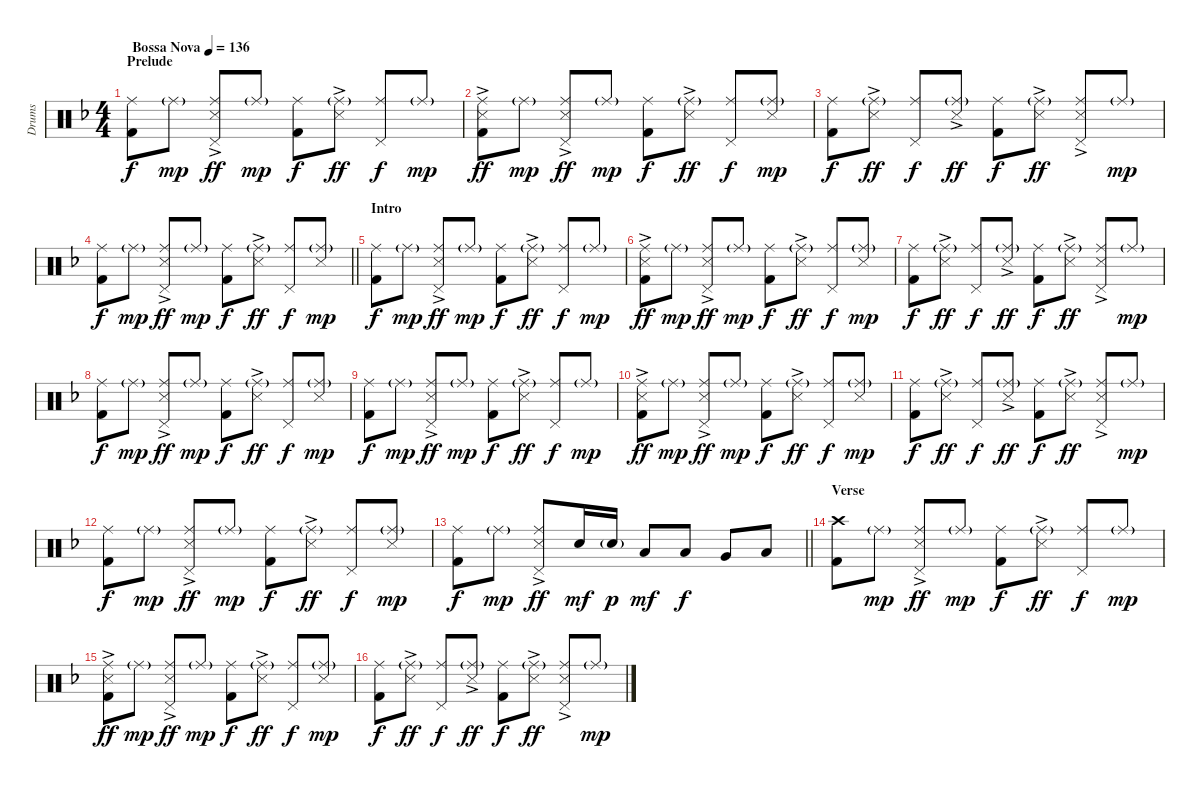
\track ("Drums" "Drums") {instrument percussion}
\staff {score}
\articulation defaults
\ts (4 4)
\section ("" "Prelude")
\tempo (136 "Bossa Nova")
\clef neutral
\ks f
("Ride (middle)" "Kick (hit) 2").8{dy f} "Ride (middle)"{g}.8{dy mp} ("Ride (middle)" "Snare (side stick) 3"{ac} "Pedal Hi-Hat (hit)").8{dy ff} "Ride (middle)"{g}.8{dy mp} ("Ride (middle)" "Kick (hit) 2").8{dy f} ("Ride (middle)"{g} "Snare (side stick) 3"{ac}).8{dy ff} ("Ride (middle)" "Pedal Hi-Hat (hit)").8{dy f} "Ride (middle)"{g}.8{dy mp} |
("Ride (middle)" "Snare (side stick) 3"{ac} "Kick (hit) 2").8{dy ff} "Ride (middle)"{g}.8{dy mp} ("Ride (middle)" "Snare (side stick) 3"{ac} "Pedal Hi-Hat (hit)").8{dy ff} "Ride (middle)"{g}.8{dy mp} ("Ride (middle)" "Kick (hit) 2").8{dy f} ("Ride (middle)"{g} "Snare (side stick) 3"{ac}).8{dy ff} ("Ride (middle)" "Pedal Hi-Hat (hit)").8{dy f} ("Ride (middle)"{g} "Snare (side stick) 3").8{dy mp} |
("Ride (middle)" "Kick (hit) 2").8{dy f} ("Ride (middle)"{g} "Snare (side stick) 3"{ac}).8{dy ff} ("Ride (middle)" "Pedal Hi-Hat (hit)").8{dy f} ("Ride (middle)"{g} "Snare (side stick) 3"{ac}).8{dy ff} ("Ride (middle)" "Kick (hit) 2").8{dy f} ("Ride (middle)"{g} "Snare (side stick) 3"{ac}).8{dy ff} ("Ride (middle)" "Snare (side stick) 3"{ac} "Pedal Hi-Hat (hit)").8 "Ride (middle)"{g}.8{dy mp} |
\barLineRight lightlight
("Ride (middle)" "Kick (hit) 2").8{dy f} "Ride (middle)"{g}.8{dy mp} ("Ride (middle)" "Snare (side stick) 3"{ac} "Pedal Hi-Hat (hit)").8{dy ff} "Ride (middle)"{g}.8{dy mp} ("Ride (middle)" "Kick (hit) 2").8{dy f} ("Ride (middle)"{g} "Snare (side stick) 3"{ac}).8{dy ff} ("Ride (middle)" "Pedal Hi-Hat (hit)").8{dy f} ("Ride (middle)"{g} "Snare (side stick) 3").8{dy mp} |
\section ("" "Intro")
("Ride (middle)" "Kick (hit) 2").8{dy f} "Ride (middle)"{g}.8{dy mp} ("Ride (middle)" "Snare (side stick) 3"{ac} "Pedal Hi-Hat (hit)").8{dy ff} "Ride (middle)"{g}.8{dy mp} ("Ride (middle)" "Kick (hit) 2").8{dy f} ("Ride (middle)"{g} "Snare (side stick) 3"{ac}).8{dy ff} ("Ride (middle)" "Pedal Hi-Hat (hit)").8{dy f} "Ride (middle)"{g}.8{dy mp} |
("Ride (middle)" "Snare (side stick) 3"{ac} "Kick (hit) 2").8{dy ff} "Ride (middle)"{g}.8{dy mp} ("Ride (middle)" "Snare (side stick) 3"{ac} "Pedal Hi-Hat (hit)").8{dy ff} "Ride (middle)"{g}.8{dy mp} ("Ride (middle)" "Kick (hit) 2").8{dy f} ("Ride (middle)"{g} "Snare (side stick) 3"{ac}).8{dy ff} ("Ride (middle)" "Pedal Hi-Hat (hit)").8{dy f} ("Ride (middle)"{g} "Snare (side stick) 3").8{dy mp} |
("Ride (middle)" "Kick (hit) 2").8{dy f} ("Ride (middle)"{g} "Snare (side stick) 3"{ac}).8{dy ff} ("Ride (middle)" "Pedal Hi-Hat (hit)").8{dy f} ("Ride (middle)"{g} "Snare (side stick) 3"{ac}).8{dy ff} ("Ride (middle)" "Kick (hit) 2").8{dy f} ("Ride (middle)"{g} "Snare (side stick) 3"{ac}).8{dy ff} ("Ride (middle)" "Snare (side stick) 3"{ac} "Pedal Hi-Hat (hit)").8 "Ride (middle)"{g}.8{dy mp} |
("Ride (middle)" "Kick (hit) 2").8{dy f} "Ride (middle)"{g}.8{dy mp} ("Ride (middle)" "Snare (side stick) 3"{ac} "Pedal Hi-Hat (hit)").8{dy ff} "Ride (middle)"{g}.8{dy mp} ("Ride (middle)" "Kick (hit) 2").8{dy f} ("Ride (middle)"{g} "Snare (side stick) 3"{ac}).8{dy ff} ("Ride (middle)" "Pedal Hi-Hat (hit)").8{dy f} ("Ride (middle)"{g} "Snare (side stick) 3").8{dy mp} |
("Ride (middle)" "Kick (hit) 2").8{dy f} "Ride (middle)"{g}.8{dy mp} ("Ride (middle)" "Snare (side stick) 3"{ac} "Pedal Hi-Hat (hit)").8{dy ff} "Ride (middle)"{g}.8{dy mp} ("Ride (middle)" "Kick (hit) 2").8{dy f} ("Ride (middle)"{g} "Snare (side stick) 3"{ac}).8{dy ff} ("Ride (middle)" "Pedal Hi-Hat (hit)").8{dy f} "Ride (middle)"{g}.8{dy mp} |
("Ride (middle)" "Snare (side stick) 3"{ac} "Kick (hit) 2").8{dy ff} "Ride (middle)"{g}.8{dy mp} ("Ride (middle)" "Snare (side stick) 3"{ac} "Pedal Hi-Hat (hit)").8{dy ff} "Ride (middle)"{g}.8{dy mp} ("Ride (middle)" "Kick (hit) 2").8{dy f} ("Ride (middle)"{g} "Snare (side stick) 3"{ac}).8{dy ff} ("Ride (middle)" "Pedal Hi-Hat (hit)").8{dy f} ("Ride (middle)"{g} "Snare (side stick) 3").8{dy mp} |
("Ride (middle)" "Kick (hit) 2").8{dy f} ("Ride (middle)"{g} "Snare (side stick) 3"{ac}).8{dy ff} ("Ride (middle)" "Pedal Hi-Hat (hit)").8{dy f} ("Ride (middle)"{g} "Snare (side stick) 3"{ac}).8{dy ff} ("Ride (middle)" "Kick (hit) 2").8{dy f} ("Ride (middle)"{g} "Snare (side stick) 3"{ac}).8{dy ff} ("Ride (middle)" "Snare (side stick) 3"{ac} "Pedal Hi-Hat (hit)").8 "Ride (middle)"{g}.8{dy mp} |
("Ride (middle)" "Kick (hit) 2").8{dy f} "Ride (middle)"{g}.8{dy mp} ("Ride (middle)" "Snare (side stick) 3"{ac} "Pedal Hi-Hat (hit)").8{dy ff} "Ride (middle)"{g}.8{dy mp} ("Ride (middle)" "Kick (hit) 2").8{dy f} ("Ride (middle)"{g} "Snare (side stick) 3"{ac}).8{dy ff} ("Ride (middle)" "Pedal Hi-Hat (hit)").8{dy f} ("Ride (middle)"{g} "Snare (side stick) 3").8{dy mp} |
\barLineRight lightlight
("Ride (middle)" "Kick (hit) 2").8{dy f} "Ride (middle)"{g}.8{dy mp} ("Ride (middle)" "Snare (side stick) 3"{ac} "Pedal Hi-Hat (hit)").8{dy ff} "Snare (hit) 2".16{dy mf} "Snare (hit) 2"{g}.16{dy p} "Low Tom (hit)".8{dy mf} "Low Tom (hit)".8{dy f} "Very Low Tom (hit)".8 "Low Floor Tom (hit)".8 |
\section ("" "Verse")
("Crash high (hit)" "Kick (hit) 2").8 "Ride (middle)"{g}.8{dy mp} ("Ride (middle)" "Snare (side stick) 3"{ac} "Pedal Hi-Hat (hit)").8{dy ff} "Ride (middle)"{g}.8{dy mp} ("Ride (middle)" "Kick (hit) 2").8{dy f} ("Ride (middle)"{g} "Snare (side stick) 3"{ac}).8{dy ff} ("Ride (middle)" "Pedal Hi-Hat (hit)").8{dy f} "Ride (middle)"{g}.8{dy mp} |
("Ride (middle)" "Snare (side stick) 3"{ac} "Kick (hit) 2").8{dy ff} "Ride (middle)"{g}.8{dy mp} ("Ride (middle)" "Snare (side stick) 3"{ac} "Pedal Hi-Hat (hit)").8{dy ff} "Ride (middle)"{g}.8{dy mp} ("Ride (middle)" "Kick (hit) 2").8{dy f} ("Ride (middle)"{g} "Snare (side stick) 3"{ac}).8{dy ff} ("Ride (middle)" "Pedal Hi-Hat (hit)").8{dy f} ("Ride (middle)"{g} "Snare (side stick) 3").8{dy mp} |
("Ride (middle)" "Kick (hit) 2").8{dy f} ("Ride (middle)"{g} "Snare (side stick) 3"{ac}).8{dy ff} ("Ride (middle)" "Pedal Hi-Hat (hit)").8{dy f} ("Ride (middle)"{g} "Snare (side stick) 3"{ac}).8{dy ff} ("Ride (middle)" "Kick (hit) 2").8{dy f} ("Ride (middle)"{g} "Snare (side stick) 3"{ac}).8{dy ff} ("Ride (middle)" "Snare (side stick) 3"{ac} "Pedal Hi-Hat (hit)").8 "Ride (middle)"{g}.8{dy mp}
